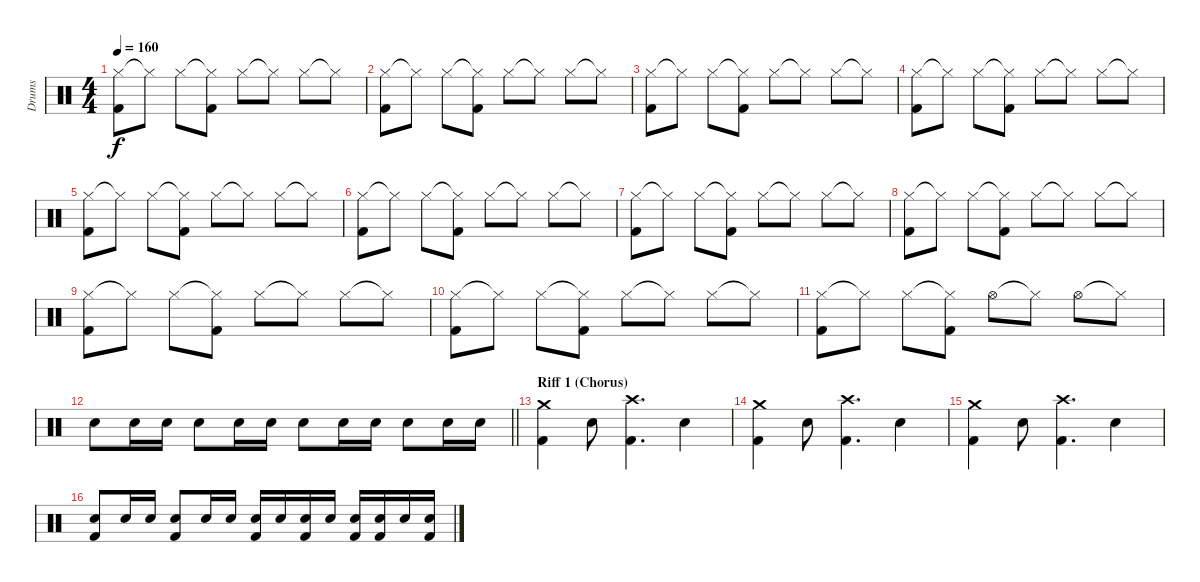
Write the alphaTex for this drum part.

\track ("Drums" "Drums") {instrument percussion}
\staff {score}
\articulation defaults
\ts (4 4)
\tempo 160
\clef neutral
\ks c
("Hi-Hat (closed)" "Kick (hit) 2").8{dy f} "Hi-Hat (closed)"{t}.8 "Hi-Hat (closed)".8 ("Hi-Hat (closed)"{t} "Kick (hit) 2").8 "Hi-Hat (closed)".8 "Hi-Hat (closed)"{t}.8 "Hi-Hat (closed)".8 "Hi-Hat (closed)"{t}.8 |
("Hi-Hat (closed)" "Kick (hit) 2").8 "Hi-Hat (closed)"{t}.8 "Hi-Hat (closed)".8 ("Hi-Hat (closed)"{t} "Kick (hit) 2").8 "Hi-Hat (closed)".8 "Hi-Hat (closed)"{t}.8 "Hi-Hat (closed)".8 "Hi-Hat (closed)"{t}.8 |
("Hi-Hat (closed)" "Kick (hit) 2").8 "Hi-Hat (closed)"{t}.8 "Hi-Hat (closed)".8 ("Hi-Hat (closed)"{t} "Kick (hit) 2").8 "Hi-Hat (closed)".8 "Hi-Hat (closed)"{t}.8 "Hi-Hat (closed)".8 "Hi-Hat (closed)"{t}.8 |
("Hi-Hat (closed)" "Kick (hit) 2").8 "Hi-Hat (closed)"{t}.8 "Hi-Hat (closed)".8 ("Hi-Hat (closed)"{t} "Kick (hit) 2").8 "Hi-Hat (closed)".8 "Hi-Hat (closed)"{t}.8 "Hi-Hat (closed)".8 "Hi-Hat (closed)"{t}.8 |
("Hi-Hat (closed)" "Kick (hit) 2").8 "Hi-Hat (closed)"{t}.8 "Hi-Hat (closed)".8 ("Hi-Hat (closed)"{t} "Kick (hit) 2").8 "Hi-Hat (closed)".8 "Hi-Hat (closed)"{t}.8 "Hi-Hat (closed)".8 "Hi-Hat (closed)"{t}.8 |
("Hi-Hat (closed)" "Kick (hit) 2").8 "Hi-Hat (closed)"{t}.8 "Hi-Hat (closed)".8 ("Hi-Hat (closed)"{t} "Kick (hit) 2").8 "Hi-Hat (closed)".8 "Hi-Hat (closed)"{t}.8 "Hi-Hat (closed)".8 "Hi-Hat (closed)"{t}.8 |
("Hi-Hat (closed)" "Kick (hit) 2").8 "Hi-Hat (closed)"{t}.8 "Hi-Hat (closed)".8 ("Hi-Hat (closed)"{t} "Kick (hit) 2").8 "Hi-Hat (closed)".8 "Hi-Hat (closed)"{t}.8 "Hi-Hat (closed)".8 "Hi-Hat (closed)"{t}.8 |
("Hi-Hat (closed)" "Kick (hit) 2").8 "Hi-Hat (closed)"{t}.8 "Hi-Hat (closed)".8 ("Hi-Hat (closed)"{t} "Kick (hit) 2").8 "Hi-Hat (closed)".8 "Hi-Hat (closed)"{t}.8 "Hi-Hat (closed)".8 "Hi-Hat (closed)"{t}.8 |
("Hi-Hat (closed)" "Kick (hit) 2").8 "Hi-Hat (closed)"{t}.8 "Hi-Hat (closed)".8 ("Hi-Hat (closed)"{t} "Kick (hit) 2").8 "Hi-Hat (closed)".8 "Hi-Hat (closed)"{t}.8 "Hi-Hat (closed)".8 "Hi-Hat (closed)"{t}.8 |
("Hi-Hat (closed)" "Kick (hit) 2").8 "Hi-Hat (closed)"{t}.8 "Hi-Hat (closed)".8 ("Hi-Hat (closed)"{t} "Kick (hit) 2").8 "Hi-Hat (closed)".8 "Hi-Hat (closed)"{t}.8 "Hi-Hat (closed)".8 "Hi-Hat (closed)"{t}.8 |
("Hi-Hat (closed)" "Kick (hit) 2").8 "Hi-Hat (closed)"{t}.8 "Hi-Hat (closed)".8 ("Hi-Hat (closed)"{t} "Kick (hit) 2").8 "Hi-Hat (open)".8 "Hi-Hat (closed)"{t}.8 "Hi-Hat (open)".8 "Hi-Hat (closed)"{t}.8 |
\barLineRight lightlight "Snare (hit) 2".8 "Snare (hit) 2".16 "Snare (hit) 2".16 "Snare (hit) 2".8 "Snare (hit) 2".16 "Snare (hit) 2".16 "Snare (hit) 2".8 "Snare (hit) 2".16 "Snare (hit) 2".16 "Snare (hit) 2".8 "Snare (hit) 2".16 "Snare (hit) 2".16
|
\section ("" "Riff 1 (Chorus)")
("Crash medium (hit)" "Kick (hit) 2").4 "Snare (hit) 2".8 ("Crash high (hit)" "Kick (hit) 2").4{d} "Snare (hit) 2".4 |
("Crash medium (hit)" "Kick (hit) 2").4 "Snare (hit) 2".8 ("Crash high (hit)" "Kick (hit) 2").4{d} "Snare (hit) 2".4 |
("Crash medium (hit)" "Kick (hit) 2").4 "Snare (hit) 2".8 ("Crash high (hit)" "Kick (hit) 2").4{d} "Snare (hit) 2".4 |
("Snare (hit) 2" "Kick (hit) 2").8 "Snare (hit) 2".16 "Snare (hit) 2".16 ("Snare (hit) 2" "Kick (hit) 2").8 "Snare (hit) 2".16 "Snare (hit) 2".16 ("Snare (hit) 2" "Kick (hit) 2").16 "Snare (hit) 2".16 ("Snare (hit) 2" "Kick (hit) 2").16 "Snare (hit) 2".16 ("Snare (hit) 2" "Kick (hit) 2").16 ("Snare (hit) 2" "Kick (hit) 2").16 "Snare (hit) 2".16 ("Snare (hit) 2" "Kick (hit) 2").16
